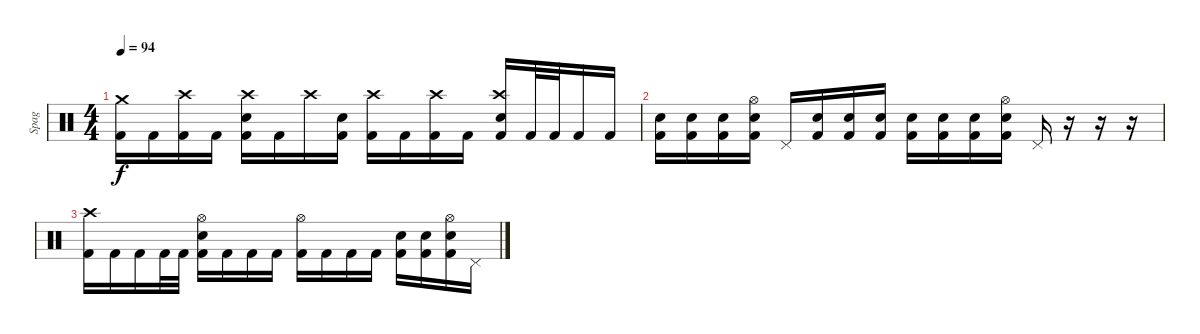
\track ("Spag" "Spag") {instrument percussion}
\staff {score}
\articulation defaults
\ts (4 4)
\tempo 94
\clef neutral
\ks c
("Crash medium (hit)" "Kick (hit) 2").16{dy f} "Kick (hit) 2".16 ("Crash high (hit)" "Kick (hit) 2").16 "Kick (hit) 2".16 ("Crash high (hit)" "Electric Snare (hit)" "Kick (hit) 2").16 "Kick (hit) 2".16 "Crash high (hit)".16 ("Electric Snare (hit)" "Kick (hit) 2").16 ("Crash high (hit)" "Kick (hit) 2").16 "Kick (hit) 2".16 ("Crash high (hit)" "Kick (hit) 2").16 "Kick (hit) 2".16 ("Crash high (hit)" "Electric Snare (hit)" "Kick (hit) 2").16 "Kick (hit) 2".32 "Kick (hit) 2".32 "Kick (hit) 2".16 "Kick (hit) 2".16 |
("Electric Snare (hit)" "Kick (hit) 2").16 ("Electric Snare (hit)" "Kick (hit) 2").16 ("Electric Snare (hit)" "Kick (hit) 2").16 ("Hi-Hat (open)" "Electric Snare (hit)" "Kick (hit) 2").16 "Pedal Hi-Hat (hit)".16 ("Electric Snare (hit)" "Kick (hit) 2").16 ("Electric Snare (hit)" "Kick (hit) 2").16 ("Electric Snare (hit)" "Kick (hit) 2").16 ("Electric Snare (hit)" "Kick (hit) 2").16 ("Electric Snare (hit)" "Kick (hit) 2").16 ("Electric Snare (hit)" "Kick (hit) 2").16 ("Hi-Hat (open)" "Electric Snare (hit)" "Kick (hit) 2").16 "Pedal Hi-Hat (hit)".16 r.16 r.16 r.16 |
("Crash high (hit)" "Kick (hit) 2").16 "Kick (hit) 2".16 "Kick (hit) 2".16 "Kick (hit) 2".32 "Kick (hit) 2".32 ("Hi-Hat (open)" "Electric Snare (hit)" "Kick (hit) 2").16 "Kick (hit) 2".16 "Kick (hit) 2".16 "Kick (hit) 2".16 ("Hi-Hat (open)" "Kick (hit) 2").16 "Kick (hit) 2".16 "Kick (hit) 2".16 "Kick (hit) 2".16 ("Electric Snare (hit)" "Kick (hit) 2").16 ("Electric Snare (hit)" "Kick (hit) 2").16 ("Hi-Hat (open)" "Electric Snare (hit)" "Kick (hit) 2").16 "Pedal Hi-Hat (hit)".16
